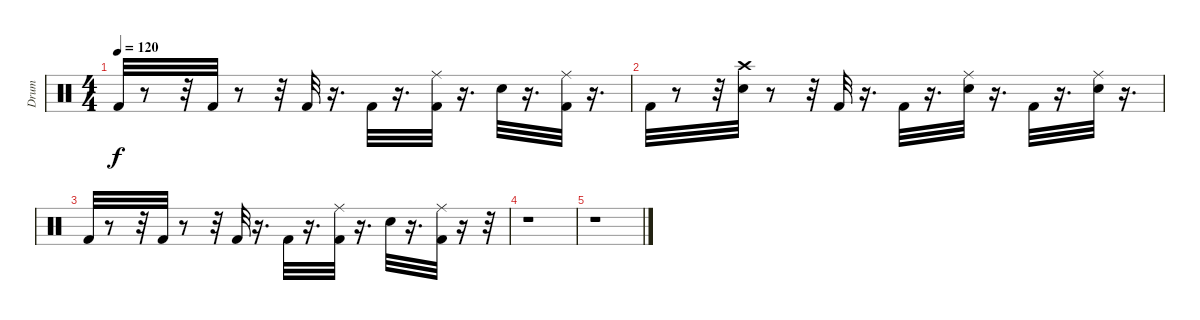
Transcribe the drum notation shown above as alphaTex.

\track ("Drum" "Drum") {instrument percussion}
\staff {score}
\articulation defaults
\ts (4 4)
\tempo 120
\clef neutral
\ks c "Kick (hit) 2".32{dy f}
r.8 r.32 "Kick (hit) 2".32 r.8 r.32 "Kick (hit) 2".32 r.16{d} "Kick (hit) 2".32 r.16{d} ("Kick (hit) 2" "Ride (middle)").32 r.16{d} "Snare (hit) 2".32 r.16{d} ("Kick (hit) 2" "Ride (middle)").32 r.16{d} |
"Kick (hit) 2".32 r.8 r.32 ("Crash high (hit)" "Snare (hit) 2").32 r.8 r.32 "Kick (hit) 2".32 r.16{d} "Kick (hit) 2".32 r.16{d} ("Snare (hit) 2" "Ride (middle)").32 r.16{d} "Kick (hit) 2".32 r.16{d} ("Snare (hit) 2" "Ride (middle)").32 r.16{d} |
"Kick (hit) 2".32 r.8 r.32 "Kick (hit) 2".32 r.8 r.32 "Kick (hit) 2".32 r.16{d} "Kick (hit) 2".32 r.16{d} ("Kick (hit) 2" "Ride (middle)").32 r.16{d} "Snare (hit) 2".32 r.16{d} ("Kick (hit) 2" "Ride (middle)").32 r.16 r.32 |
r.1 |
r.1
